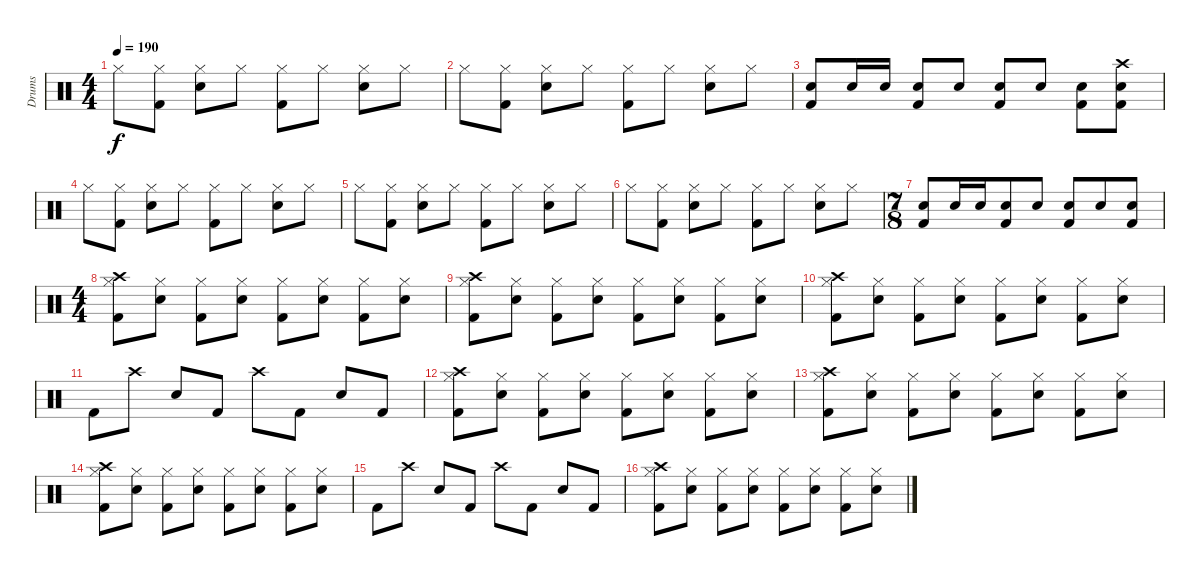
\track ("Drums" "Drums") {instrument percussion}
\staff {score}
\articulation defaults
\ts (4 4)
\tempo 190
\clef neutral
\ks c "Hi-Hat (closed)".8{dy f}
("Kick (hit) 2" "Hi-Hat (closed)").8 ("Snare (hit) 2" "Hi-Hat (closed)").8 "Hi-Hat (closed)".8 ("Kick (hit) 2" "Hi-Hat (closed)").8 "Hi-Hat (closed)".8 ("Snare (hit) 2" "Hi-Hat (closed)").8 "Hi-Hat (closed)".8 |
"Hi-Hat (closed)".8 ("Kick (hit) 2" "Hi-Hat (closed)").8 ("Snare (hit) 2" "Hi-Hat (closed)").8 "Hi-Hat (closed)".8 ("Kick (hit) 2" "Hi-Hat (closed)").8 "Hi-Hat (closed)".8 ("Snare (hit) 2" "Hi-Hat (closed)").8 "Hi-Hat (closed)".8 |
("Kick (hit) 2" "Snare (hit) 2").8 "Snare (hit) 2".16 "Snare (hit) 2".16 ("Kick (hit) 2" "Snare (hit) 2").8 "Snare (hit) 2".8 ("Kick (hit) 2" "Snare (hit) 2").8 "Snare (hit) 2".8 ("Kick (hit) 2" "Snare (hit) 2").8 ("Kick (hit) 2" "Snare (hit) 2" "Crash high (hit)").8 |
"Hi-Hat (closed)".8 ("Kick (hit) 2" "Hi-Hat (closed)").8 ("Snare (hit) 2" "Hi-Hat (closed)").8 "Hi-Hat (closed)".8 ("Kick (hit) 2" "Hi-Hat (closed)").8 "Hi-Hat (closed)".8 ("Snare (hit) 2" "Hi-Hat (closed)").8 "Hi-Hat (closed)".8 |
"Hi-Hat (closed)".8 ("Kick (hit) 2" "Hi-Hat (closed)").8 ("Snare (hit) 2" "Hi-Hat (closed)").8 "Hi-Hat (closed)".8 ("Kick (hit) 2" "Hi-Hat (closed)").8 "Hi-Hat (closed)".8 ("Snare (hit) 2" "Hi-Hat (closed)").8 "Hi-Hat (closed)".8 |
"Hi-Hat (closed)".8 ("Kick (hit) 2" "Hi-Hat (closed)").8 ("Snare (hit) 2" "Hi-Hat (closed)").8 "Hi-Hat (closed)".8 ("Kick (hit) 2" "Hi-Hat (closed)").8 "Hi-Hat (closed)".8 ("Snare (hit) 2" "Hi-Hat (closed)").8 "Hi-Hat (closed)".8 |
\ts (7 8)
("Kick (hit) 2" "Snare (hit) 2").8 "Snare (hit) 2".16 "Snare (hit) 2".16 ("Kick (hit) 2" "Snare (hit) 2").8 "Snare (hit) 2".8 ("Kick (hit) 2" "Snare (hit) 2").8 "Snare (hit) 2".8 ("Kick (hit) 2" "Snare (hit) 2").8 |
\ts (4 4)
("Kick (hit) 2" "Hi-Hat (closed)" "Crash high (hit)").8 ("Snare (hit) 2" "Hi-Hat (closed)").8 ("Kick (hit) 2" "Hi-Hat (closed)").8 ("Snare (hit) 2" "Hi-Hat (closed)").8 ("Kick (hit) 2" "Hi-Hat (closed)").8 ("Snare (hit) 2" "Hi-Hat (closed)").8 ("Kick (hit) 2" "Hi-Hat (closed)").8 ("Snare (hit) 2" "Hi-Hat (closed)").8 |
("Kick (hit) 2" "Hi-Hat (closed)" "Crash high (hit)").8 ("Snare (hit) 2" "Hi-Hat (closed)").8 ("Kick (hit) 2" "Hi-Hat (closed)").8 ("Snare (hit) 2" "Hi-Hat (closed)").8 ("Kick (hit) 2" "Hi-Hat (closed)").8 ("Snare (hit) 2" "Hi-Hat (closed)").8 ("Kick (hit) 2" "Hi-Hat (closed)").8 ("Snare (hit) 2" "Hi-Hat (closed)").8 |
("Kick (hit) 2" "Hi-Hat (closed)" "Crash high (hit)").8 ("Snare (hit) 2" "Hi-Hat (closed)").8 ("Kick (hit) 2" "Hi-Hat (closed)").8 ("Snare (hit) 2" "Hi-Hat (closed)").8 ("Kick (hit) 2" "Hi-Hat (closed)").8 ("Snare (hit) 2" "Hi-Hat (closed)").8 ("Kick (hit) 2" "Hi-Hat (closed)").8 ("Snare (hit) 2" "Hi-Hat (closed)").8 |
"Kick (hit) 2".8 "Crash high (hit)".8 "Snare (hit) 2".8 "Kick (hit) 2".8 "Crash high (hit)".8 "Kick (hit) 2".8 "Snare (hit) 2".8 "Kick (hit) 2".8 |
("Kick (hit) 2" "Hi-Hat (closed)" "Crash high (hit)").8 ("Snare (hit) 2" "Hi-Hat (closed)").8 ("Kick (hit) 2" "Hi-Hat (closed)").8 ("Snare (hit) 2" "Hi-Hat (closed)").8 ("Kick (hit) 2" "Hi-Hat (closed)").8 ("Snare (hit) 2" "Hi-Hat (closed)").8 ("Kick (hit) 2" "Hi-Hat (closed)").8 ("Snare (hit) 2" "Hi-Hat (closed)").8 |
("Kick (hit) 2" "Hi-Hat (closed)" "Crash high (hit)").8 ("Snare (hit) 2" "Hi-Hat (closed)").8 ("Kick (hit) 2" "Hi-Hat (closed)").8 ("Snare (hit) 2" "Hi-Hat (closed)").8 ("Kick (hit) 2" "Hi-Hat (closed)").8 ("Snare (hit) 2" "Hi-Hat (closed)").8 ("Kick (hit) 2" "Hi-Hat (closed)").8 ("Snare (hit) 2" "Hi-Hat (closed)").8 |
("Kick (hit) 2" "Hi-Hat (closed)" "Crash high (hit)").8 ("Snare (hit) 2" "Hi-Hat (closed)").8 ("Kick (hit) 2" "Hi-Hat (closed)").8 ("Snare (hit) 2" "Hi-Hat (closed)").8 ("Kick (hit) 2" "Hi-Hat (closed)").8 ("Snare (hit) 2" "Hi-Hat (closed)").8 ("Kick (hit) 2" "Hi-Hat (closed)").8 ("Snare (hit) 2" "Hi-Hat (closed)").8 |
"Kick (hit) 2".8 "Crash high (hit)".8 "Snare (hit) 2".8 "Kick (hit) 2".8 "Crash high (hit)".8 "Kick (hit) 2".8 "Snare (hit) 2".8 "Kick (hit) 2".8 |
("Kick (hit) 2" "Hi-Hat (closed)" "Crash high (hit)").8 ("Snare (hit) 2" "Hi-Hat (closed)").8 ("Kick (hit) 2" "Hi-Hat (closed)").8 ("Snare (hit) 2" "Hi-Hat (closed)").8 ("Kick (hit) 2" "Hi-Hat (closed)").8 ("Snare (hit) 2" "Hi-Hat (closed)").8 ("Kick (hit) 2" "Hi-Hat (closed)").8 ("Snare (hit) 2" "Hi-Hat (closed)").8
